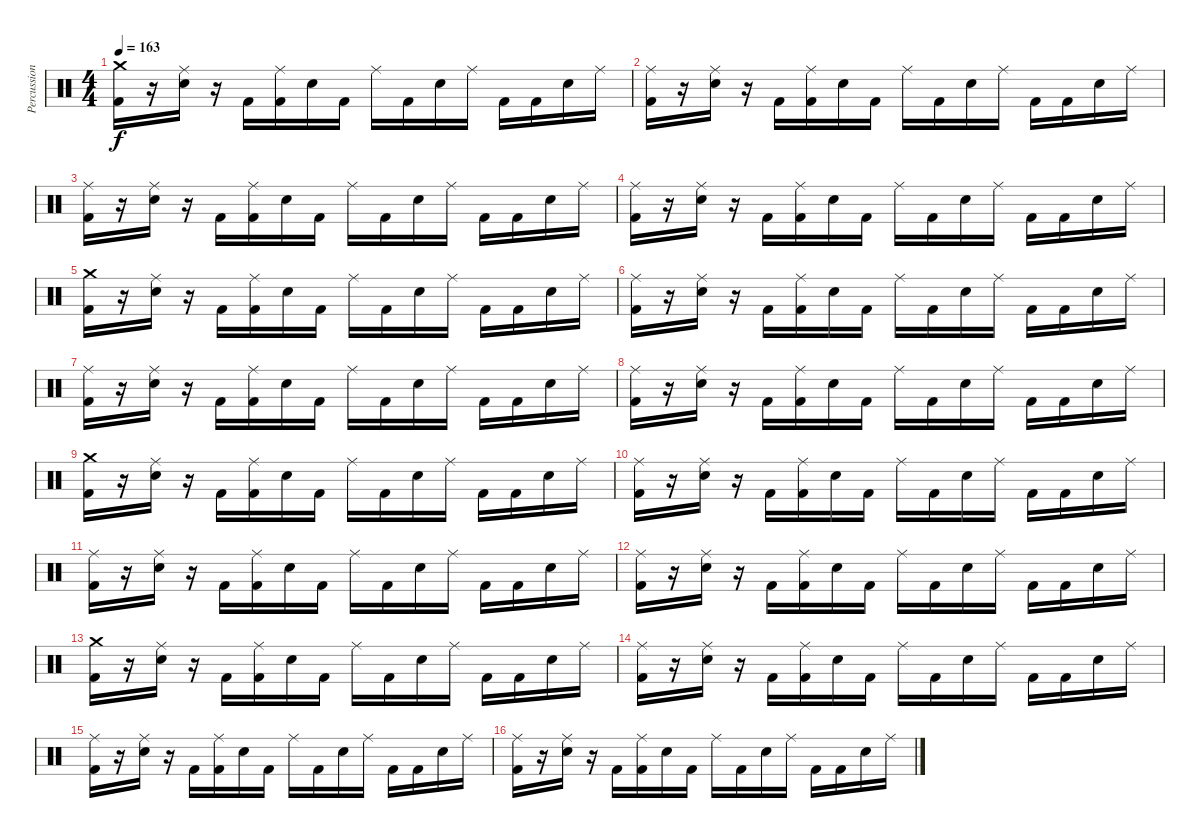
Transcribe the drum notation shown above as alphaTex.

\track ("Percussion" "Percussion") {instrument percussion}
\staff {score}
\articulation defaults
\ts (4 4)
\tempo 163
\clef neutral
\ks c
("Crash medium (hit)" "Kick (hit) 2").16{dy f} r.16 ("Ride (middle)" "Snare (hit) 2").16 r.16 "Kick (hit) 2".16 ("Ride (middle)" "Kick (hit) 2").16 "Snare (hit) 2".16 "Kick (hit) 2".16 "Ride (middle)".16 "Kick (hit) 2".16 "Snare (hit) 2".16 "Ride (middle)".16 "Kick (hit) 2".16 "Kick (hit) 2".16 "Snare (hit) 2".16 "Ride (middle)".16 |
("Ride (middle)" "Kick (hit) 2").16 r.16 ("Ride (middle)" "Snare (hit) 2").16 r.16 "Kick (hit) 2".16 ("Ride (middle)" "Kick (hit) 2").16 "Snare (hit) 2".16 "Kick (hit) 2".16 "Ride (middle)".16 "Kick (hit) 2".16 "Snare (hit) 2".16 "Ride (middle)".16 "Kick (hit) 2".16 "Kick (hit) 2".16 "Snare (hit) 2".16 "Ride (middle)".16 |
("Ride (middle)" "Kick (hit) 2").16 r.16 ("Ride (middle)" "Snare (hit) 2").16 r.16 "Kick (hit) 2".16 ("Ride (middle)" "Kick (hit) 2").16 "Snare (hit) 2".16 "Kick (hit) 2".16 "Ride (middle)".16 "Kick (hit) 2".16 "Snare (hit) 2".16 "Ride (middle)".16 "Kick (hit) 2".16 "Kick (hit) 2".16 "Snare (hit) 2".16 "Ride (middle)".16 |
("Ride (middle)" "Kick (hit) 2").16 r.16 ("Ride (middle)" "Snare (hit) 2").16 r.16 "Kick (hit) 2".16 ("Ride (middle)" "Kick (hit) 2").16 "Snare (hit) 2".16 "Kick (hit) 2".16 "Ride (middle)".16 "Kick (hit) 2".16 "Snare (hit) 2".16 "Ride (middle)".16 "Kick (hit) 2".16 "Kick (hit) 2".16 "Snare (hit) 2".16 "Ride (middle)".16 |
("Crash medium (hit)" "Kick (hit) 2").16 r.16 ("Ride (middle)" "Snare (hit) 2").16 r.16 "Kick (hit) 2".16 ("Ride (middle)" "Kick (hit) 2").16 "Snare (hit) 2".16 "Kick (hit) 2".16 "Ride (middle)".16 "Kick (hit) 2".16 "Snare (hit) 2".16 "Ride (middle)".16 "Kick (hit) 2".16 "Kick (hit) 2".16 "Snare (hit) 2".16 "Ride (middle)".16 |
("Ride (middle)" "Kick (hit) 2").16 r.16 ("Ride (middle)" "Snare (hit) 2").16 r.16 "Kick (hit) 2".16 ("Ride (middle)" "Kick (hit) 2").16 "Snare (hit) 2".16 "Kick (hit) 2".16 "Ride (middle)".16 "Kick (hit) 2".16 "Snare (hit) 2".16 "Ride (middle)".16 "Kick (hit) 2".16 "Kick (hit) 2".16 "Snare (hit) 2".16 "Ride (middle)".16 |
("Ride (middle)" "Kick (hit) 2").16 r.16 ("Ride (middle)" "Snare (hit) 2").16 r.16 "Kick (hit) 2".16 ("Ride (middle)" "Kick (hit) 2").16 "Snare (hit) 2".16 "Kick (hit) 2".16 "Ride (middle)".16 "Kick (hit) 2".16 "Snare (hit) 2".16 "Ride (middle)".16 "Kick (hit) 2".16 "Kick (hit) 2".16 "Snare (hit) 2".16 "Ride (middle)".16 |
("Ride (middle)" "Kick (hit) 2").16 r.16 ("Ride (middle)" "Snare (hit) 2").16 r.16 "Kick (hit) 2".16 ("Ride (middle)" "Kick (hit) 2").16 "Snare (hit) 2".16 "Kick (hit) 2".16 "Ride (middle)".16 "Kick (hit) 2".16 "Snare (hit) 2".16 "Ride (middle)".16 "Kick (hit) 2".16 "Kick (hit) 2".16 "Snare (hit) 2".16 "Ride (middle)".16 |
("Crash medium (hit)" "Kick (hit) 2").16 r.16 ("Ride (middle)" "Snare (hit) 2").16 r.16 "Kick (hit) 2".16 ("Ride (middle)" "Kick (hit) 2").16 "Snare (hit) 2".16 "Kick (hit) 2".16 "Ride (middle)".16 "Kick (hit) 2".16 "Snare (hit) 2".16 "Ride (middle)".16 "Kick (hit) 2".16 "Kick (hit) 2".16 "Snare (hit) 2".16 "Ride (middle)".16 |
("Ride (middle)" "Kick (hit) 2").16 r.16 ("Ride (middle)" "Snare (hit) 2").16 r.16 "Kick (hit) 2".16 ("Ride (middle)" "Kick (hit) 2").16 "Snare (hit) 2".16 "Kick (hit) 2".16 "Ride (middle)".16 "Kick (hit) 2".16 "Snare (hit) 2".16 "Ride (middle)".16 "Kick (hit) 2".16 "Kick (hit) 2".16 "Snare (hit) 2".16 "Ride (middle)".16 |
("Ride (middle)" "Kick (hit) 2").16 r.16 ("Ride (middle)" "Snare (hit) 2").16 r.16 "Kick (hit) 2".16 ("Ride (middle)" "Kick (hit) 2").16 "Snare (hit) 2".16 "Kick (hit) 2".16 "Ride (middle)".16 "Kick (hit) 2".16 "Snare (hit) 2".16 "Ride (middle)".16 "Kick (hit) 2".16 "Kick (hit) 2".16 "Snare (hit) 2".16 "Ride (middle)".16 |
("Ride (middle)" "Kick (hit) 2").16 r.16 ("Ride (middle)" "Snare (hit) 2").16 r.16 "Kick (hit) 2".16 ("Ride (middle)" "Kick (hit) 2").16 "Snare (hit) 2".16 "Kick (hit) 2".16 "Ride (middle)".16 "Kick (hit) 2".16 "Snare (hit) 2".16 "Ride (middle)".16 "Kick (hit) 2".16 "Kick (hit) 2".16 "Snare (hit) 2".16 "Ride (middle)".16 |
("Crash medium (hit)" "Kick (hit) 2").16 r.16 ("Ride (middle)" "Snare (hit) 2").16 r.16 "Kick (hit) 2".16 ("Ride (middle)" "Kick (hit) 2").16 "Snare (hit) 2".16 "Kick (hit) 2".16 "Ride (middle)".16 "Kick (hit) 2".16 "Snare (hit) 2".16 "Ride (middle)".16 "Kick (hit) 2".16 "Kick (hit) 2".16 "Snare (hit) 2".16 "Ride (middle)".16 |
("Ride (middle)" "Kick (hit) 2").16 r.16 ("Ride (middle)" "Snare (hit) 2").16 r.16 "Kick (hit) 2".16 ("Ride (middle)" "Kick (hit) 2").16 "Snare (hit) 2".16 "Kick (hit) 2".16 "Ride (middle)".16 "Kick (hit) 2".16 "Snare (hit) 2".16 "Ride (middle)".16 "Kick (hit) 2".16 "Kick (hit) 2".16 "Snare (hit) 2".16 "Ride (middle)".16 |
("Ride (middle)" "Kick (hit) 2").16 r.16 ("Ride (middle)" "Snare (hit) 2").16 r.16 "Kick (hit) 2".16 ("Ride (middle)" "Kick (hit) 2").16 "Snare (hit) 2".16 "Kick (hit) 2".16 "Ride (middle)".16 "Kick (hit) 2".16 "Snare (hit) 2".16 "Ride (middle)".16 "Kick (hit) 2".16 "Kick (hit) 2".16 "Snare (hit) 2".16 "Ride (middle)".16 |
("Ride (middle)" "Kick (hit) 2").16 r.16 ("Ride (middle)" "Snare (hit) 2").16 r.16 "Kick (hit) 2".16 ("Ride (middle)" "Kick (hit) 2").16 "Snare (hit) 2".16 "Kick (hit) 2".16 "Ride (middle)".16 "Kick (hit) 2".16 "Snare (hit) 2".16 "Ride (middle)".16 "Kick (hit) 2".16 "Kick (hit) 2".16 "Snare (hit) 2".16 "Ride (middle)".16
